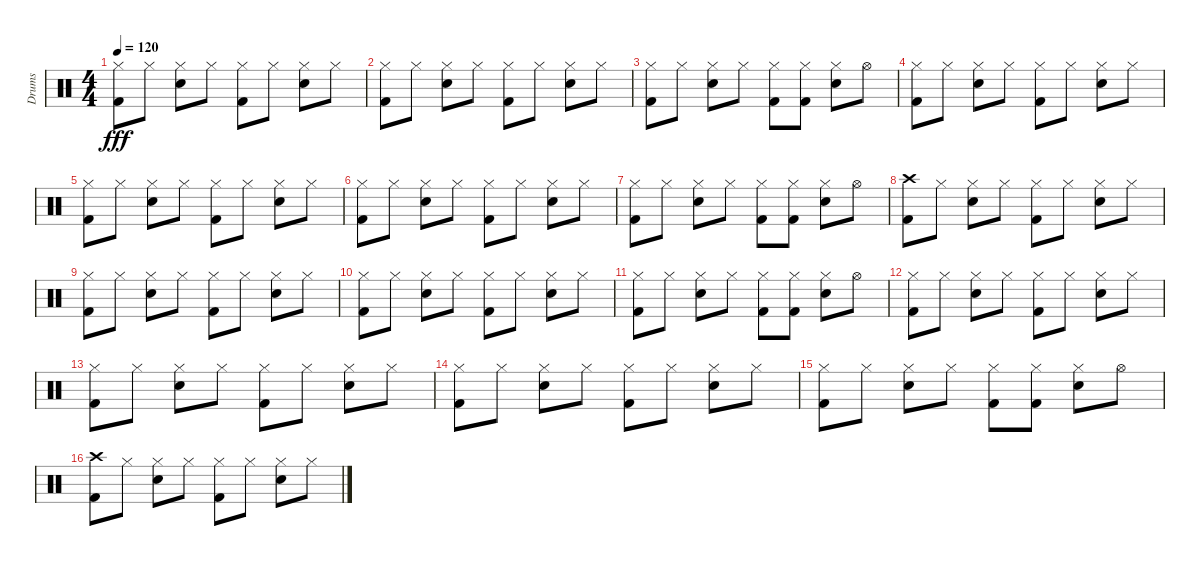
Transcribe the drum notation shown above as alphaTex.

\track ("Drums" "Drums") {instrument percussion}
\staff {score}
\articulation defaults
\ts (4 4)
\tempo 120
\clef neutral
\ks c
("Hi-Hat (closed)" "Kick (hit) 2").8{dy fff} "Hi-Hat (closed)".8 ("Hi-Hat (closed)" "Snare (hit) 2").8 "Hi-Hat (closed)".8 ("Hi-Hat (closed)" "Kick (hit) 2").8 "Hi-Hat (closed)".8 ("Hi-Hat (closed)" "Snare (hit) 2").8 "Hi-Hat (closed)".8 |
("Hi-Hat (closed)" "Kick (hit) 2").8 "Hi-Hat (closed)".8 ("Hi-Hat (closed)" "Snare (hit) 2").8 "Hi-Hat (closed)".8 ("Hi-Hat (closed)" "Kick (hit) 2").8 "Hi-Hat (closed)".8 ("Hi-Hat (closed)" "Snare (hit) 2").8 "Hi-Hat (closed)".8 |
("Hi-Hat (closed)" "Kick (hit) 2").8 "Hi-Hat (closed)".8 ("Hi-Hat (closed)" "Snare (hit) 2").8 "Hi-Hat (closed)".8 ("Hi-Hat (closed)" "Kick (hit) 2").8 ("Hi-Hat (closed)" "Kick (hit) 2").8 ("Hi-Hat (closed)" "Snare (hit) 2").8 "Hi-Hat (open)".8 |
("Hi-Hat (closed)" "Kick (hit) 2").8 "Hi-Hat (closed)".8 ("Hi-Hat (closed)" "Snare (hit) 2").8 "Hi-Hat (closed)".8 ("Hi-Hat (closed)" "Kick (hit) 2").8 "Hi-Hat (closed)".8 ("Hi-Hat (closed)" "Snare (hit) 2").8 "Hi-Hat (closed)".8 |
("Hi-Hat (closed)" "Kick (hit) 2").8 "Hi-Hat (closed)".8 ("Hi-Hat (closed)" "Snare (hit) 2").8 "Hi-Hat (closed)".8 ("Hi-Hat (closed)" "Kick (hit) 2").8 "Hi-Hat (closed)".8 ("Hi-Hat (closed)" "Snare (hit) 2").8 "Hi-Hat (closed)".8 |
("Hi-Hat (closed)" "Kick (hit) 2").8 "Hi-Hat (closed)".8 ("Hi-Hat (closed)" "Snare (hit) 2").8 "Hi-Hat (closed)".8 ("Hi-Hat (closed)" "Kick (hit) 2").8 "Hi-Hat (closed)".8 ("Hi-Hat (closed)" "Snare (hit) 2").8 "Hi-Hat (closed)".8 |
("Hi-Hat (closed)" "Kick (hit) 2").8 "Hi-Hat (closed)".8 ("Hi-Hat (closed)" "Snare (hit) 2").8 "Hi-Hat (closed)".8 ("Hi-Hat (closed)" "Kick (hit) 2").8 ("Hi-Hat (closed)" "Kick (hit) 2").8 ("Hi-Hat (closed)" "Snare (hit) 2").8 "Hi-Hat (open)".8 |
("Crash high (hit)" "Kick (hit) 2").8 "Hi-Hat (closed)".8 ("Hi-Hat (closed)" "Snare (hit) 2").8 "Hi-Hat (closed)".8 ("Hi-Hat (closed)" "Kick (hit) 2").8 "Hi-Hat (closed)".8 ("Hi-Hat (closed)" "Snare (hit) 2").8 "Hi-Hat (closed)".8 |
("Hi-Hat (closed)" "Kick (hit) 2").8 "Hi-Hat (closed)".8 ("Hi-Hat (closed)" "Snare (hit) 2").8 "Hi-Hat (closed)".8 ("Hi-Hat (closed)" "Kick (hit) 2").8 "Hi-Hat (closed)".8 ("Hi-Hat (closed)" "Snare (hit) 2").8 "Hi-Hat (closed)".8 |
("Hi-Hat (closed)" "Kick (hit) 2").8 "Hi-Hat (closed)".8 ("Hi-Hat (closed)" "Snare (hit) 2").8 "Hi-Hat (closed)".8 ("Hi-Hat (closed)" "Kick (hit) 2").8 "Hi-Hat (closed)".8 ("Hi-Hat (closed)" "Snare (hit) 2").8 "Hi-Hat (closed)".8 |
("Hi-Hat (closed)" "Kick (hit) 2").8 "Hi-Hat (closed)".8 ("Hi-Hat (closed)" "Snare (hit) 2").8 "Hi-Hat (closed)".8 ("Hi-Hat (closed)" "Kick (hit) 2").8 ("Hi-Hat (closed)" "Kick (hit) 2").8 ("Hi-Hat (closed)" "Snare (hit) 2").8 "Hi-Hat (open)".8 |
("Hi-Hat (closed)" "Kick (hit) 2").8 "Hi-Hat (closed)".8 ("Hi-Hat (closed)" "Snare (hit) 2").8 "Hi-Hat (closed)".8 ("Hi-Hat (closed)" "Kick (hit) 2").8 "Hi-Hat (closed)".8 ("Hi-Hat (closed)" "Snare (hit) 2").8 "Hi-Hat (closed)".8 |
("Hi-Hat (closed)" "Kick (hit) 2").8 "Hi-Hat (closed)".8 ("Hi-Hat (closed)" "Snare (hit) 2").8 "Hi-Hat (closed)".8 ("Hi-Hat (closed)" "Kick (hit) 2").8 "Hi-Hat (closed)".8 ("Hi-Hat (closed)" "Snare (hit) 2").8 "Hi-Hat (closed)".8 |
("Hi-Hat (closed)" "Kick (hit) 2").8 "Hi-Hat (closed)".8 ("Hi-Hat (closed)" "Snare (hit) 2").8 "Hi-Hat (closed)".8 ("Hi-Hat (closed)" "Kick (hit) 2").8 "Hi-Hat (closed)".8 ("Hi-Hat (closed)" "Snare (hit) 2").8 "Hi-Hat (closed)".8 |
("Hi-Hat (closed)" "Kick (hit) 2").8 "Hi-Hat (closed)".8 ("Hi-Hat (closed)" "Snare (hit) 2").8 "Hi-Hat (closed)".8 ("Hi-Hat (closed)" "Kick (hit) 2").8 ("Hi-Hat (closed)" "Kick (hit) 2").8 ("Hi-Hat (closed)" "Snare (hit) 2").8 "Hi-Hat (open)".8 |
("Crash high (hit)" "Kick (hit) 2").8 "Hi-Hat (closed)".8 ("Hi-Hat (closed)" "Snare (hit) 2").8 "Hi-Hat (closed)".8 ("Hi-Hat (closed)" "Kick (hit) 2").8 "Hi-Hat (closed)".8 ("Hi-Hat (closed)" "Snare (hit) 2").8 "Hi-Hat (closed)".8
